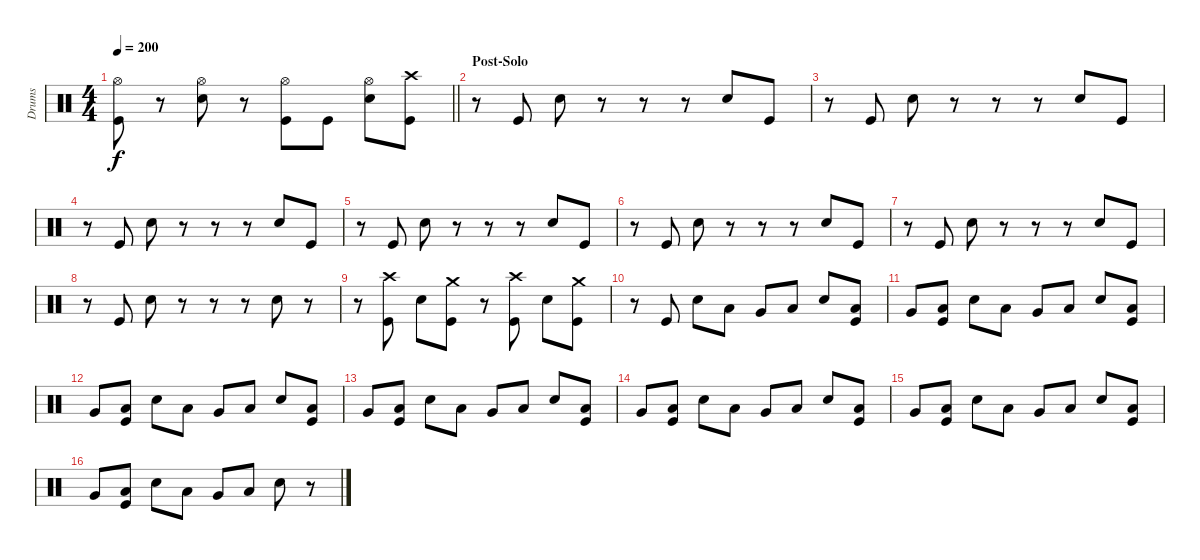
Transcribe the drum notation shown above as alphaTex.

\track ("Drums" "Drums") {instrument percussion}
\staff {score}
\articulation defaults
\ts (4 4)
\tempo 200
\clef neutral
\barLineRight lightlight
\ks c
("Hi-Hat (open)" "Kick (hit)").8{dy f} r.8 ("Hi-Hat (open)" "Electric Snare (hit)").8 r.8 ("Hi-Hat (open)" "Kick (hit)").8 "Kick (hit)".8 ("Hi-Hat (open)" "Electric Snare (hit)").8 ("Crash high (hit)" "Kick (hit)").8 |
\section ("" "Post-Solo")
r.8 "Kick (hit)".8 "Electric Snare (hit)".8 r.8 r.8 r.8 "Electric Snare (hit)".8 "Kick (hit)".8 |
r.8 "Kick (hit)".8 "Electric Snare (hit)".8 r.8 r.8 r.8 "Electric Snare (hit)".8 "Kick (hit)".8 |
r.8 "Kick (hit)".8 "Electric Snare (hit)".8 r.8 r.8 r.8 "Electric Snare (hit)".8 "Kick (hit)".8 |
r.8 "Kick (hit)".8 "Electric Snare (hit)".8 r.8 r.8 r.8 "Electric Snare (hit)".8 "Kick (hit)".8 |
r.8 "Kick (hit)".8 "Electric Snare (hit)".8 r.8 r.8 r.8 "Electric Snare (hit)".8 "Kick (hit)".8 |
r.8 "Kick (hit)".8 "Electric Snare (hit)".8 r.8 r.8 r.8 "Electric Snare (hit)".8 "Kick (hit)".8 |
r.8 "Kick (hit)".8 "Electric Snare (hit)".8 r.8 r.8 r.8 "Electric Snare (hit)".8 r.8 |
r.8 ("Crash high (hit)" "Kick (hit)").8 "Electric Snare (hit)".8 ("Crash medium (hit)" "Kick (hit)").8 r.8 ("Crash high (hit)" "Kick (hit)").8 "Electric Snare (hit)".8 ("Crash medium (hit)" "Kick (hit)").8 |
r.8 "Kick (hit)".8 "Electric Snare (hit)".8 "Low Floor Tom (hit)".8 "Very Low Tom (hit)".8 "Low Floor Tom (hit)".8 "Electric Snare (hit)".8 ("Low Floor Tom (hit)" "Kick (hit)").8 |
"Very Low Tom (hit)".8 ("Low Floor Tom (hit)" "Kick (hit)").8 "Electric Snare (hit)".8 "Low Floor Tom (hit)".8 "Very Low Tom (hit)".8 "Low Floor Tom (hit)".8 "Electric Snare (hit)".8 ("Low Floor Tom (hit)" "Kick (hit)").8 |
"Very Low Tom (hit)".8 ("Low Floor Tom (hit)" "Kick (hit)").8 "Electric Snare (hit)".8 "Low Floor Tom (hit)".8 "Very Low Tom (hit)".8 "Low Floor Tom (hit)".8 "Electric Snare (hit)".8 ("Low Floor Tom (hit)" "Kick (hit)").8 |
"Very Low Tom (hit)".8 ("Low Floor Tom (hit)" "Kick (hit)").8 "Electric Snare (hit)".8 "Low Floor Tom (hit)".8 "Very Low Tom (hit)".8 "Low Floor Tom (hit)".8 "Electric Snare (hit)".8 ("Low Floor Tom (hit)" "Kick (hit)").8 |
"Very Low Tom (hit)".8 ("Low Floor Tom (hit)" "Kick (hit)").8 "Electric Snare (hit)".8 "Low Floor Tom (hit)".8 "Very Low Tom (hit)".8 "Low Floor Tom (hit)".8 "Electric Snare (hit)".8 ("Low Floor Tom (hit)" "Kick (hit)").8 |
"Very Low Tom (hit)".8 ("Low Floor Tom (hit)" "Kick (hit)").8 "Electric Snare (hit)".8 "Low Floor Tom (hit)".8 "Very Low Tom (hit)".8 "Low Floor Tom (hit)".8 "Electric Snare (hit)".8 ("Low Floor Tom (hit)" "Kick (hit)").8 |
"Very Low Tom (hit)".8 ("Low Floor Tom (hit)" "Kick (hit)").8 "Electric Snare (hit)".8 "Low Floor Tom (hit)".8 "Very Low Tom (hit)".8 "Low Floor Tom (hit)".8 "Electric Snare (hit)".8 r.8
